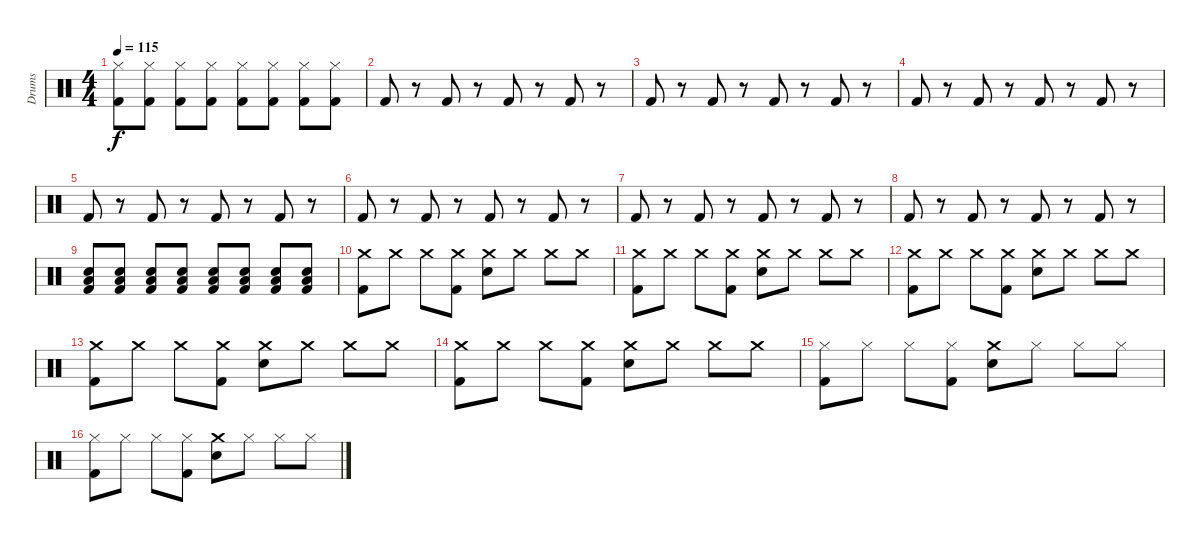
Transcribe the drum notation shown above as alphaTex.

\track ("Drums" "Drums") {instrument percussion}
\staff {score}
\articulation defaults
\ts (4 4)
\tempo 115
\clef neutral
\ks c
("Kick (hit) 2" "Hi-Hat (closed)").8{dy f} ("Kick (hit) 2" "Hi-Hat (closed)").8 ("Kick (hit) 2" "Hi-Hat (closed)").8 ("Kick (hit) 2" "Hi-Hat (closed)").8 ("Kick (hit) 2" "Hi-Hat (closed)").8 ("Kick (hit) 2" "Hi-Hat (closed)").8 ("Kick (hit) 2" "Hi-Hat (closed)").8 ("Kick (hit) 2" "Hi-Hat (closed)").8 |
"Kick (hit) 2".8 r.8 "Kick (hit) 2".8 r.8 "Kick (hit) 2".8 r.8 "Kick (hit) 2".8 r.8 |
"Kick (hit) 2".8 r.8 "Kick (hit) 2".8 r.8 "Kick (hit) 2".8 r.8 "Kick (hit) 2".8 r.8 |
"Kick (hit) 2".8 r.8 "Kick (hit) 2".8 r.8 "Kick (hit) 2".8 r.8 "Kick (hit) 2".8 r.8 |
"Kick (hit) 2".8 r.8 "Kick (hit) 2".8 r.8 "Kick (hit) 2".8 r.8 "Kick (hit) 2".8 r.8 |
"Kick (hit) 2".8 r.8 "Kick (hit) 2".8 r.8 "Kick (hit) 2".8 r.8 "Kick (hit) 2".8 r.8 |
"Kick (hit) 2".8 r.8 "Kick (hit) 2".8 r.8 "Kick (hit) 2".8 r.8 "Kick (hit) 2".8 r.8 |
"Kick (hit) 2".8 r.8 "Kick (hit) 2".8 r.8 "Kick (hit) 2".8 r.8 "Kick (hit) 2".8 r.8 |
("Kick (hit) 2" "Electric Snare (hit)" "Low Tom (hit)").8 ("Kick (hit) 2" "Electric Snare (hit)" "Low Tom (hit)").8 ("Kick (hit) 2" "Electric Snare (hit)" "Low Tom (hit)").8 ("Kick (hit) 2" "Electric Snare (hit)" "Low Tom (hit)").8 ("Kick (hit) 2" "Electric Snare (hit)" "Low Tom (hit)").8 ("Kick (hit) 2" "Electric Snare (hit)" "Low Tom (hit)").8 ("Kick (hit) 2" "Electric Snare (hit)" "Low Tom (hit)").8 ("Kick (hit) 2" "Electric Snare (hit)" "Low Tom (hit)").8 |
("Kick (hit) 2" "Crash medium (hit)").8 "Crash medium (hit)".8 "Crash medium (hit)".8 ("Kick (hit) 2" "Crash medium (hit)").8 ("Electric Snare (hit)" "Crash medium (hit)").8 "Crash medium (hit)".8 "Crash medium (hit)".8 "Crash medium (hit)".8 |
("Kick (hit) 2" "Crash medium (hit)").8 "Crash medium (hit)".8 "Crash medium (hit)".8 ("Kick (hit) 2" "Crash medium (hit)").8 ("Electric Snare (hit)" "Crash medium (hit)").8 "Crash medium (hit)".8 "Crash medium (hit)".8 "Crash medium (hit)".8 |
("Kick (hit) 2" "Crash medium (hit)").8 "Crash medium (hit)".8 "Crash medium (hit)".8 ("Kick (hit) 2" "Crash medium (hit)").8 ("Electric Snare (hit)" "Crash medium (hit)").8 "Crash medium (hit)".8 "Crash medium (hit)".8 "Crash medium (hit)".8 |
("Kick (hit) 2" "Crash medium (hit)").8 "Crash medium (hit)".8 "Crash medium (hit)".8 ("Kick (hit) 2" "Crash medium (hit)").8 ("Electric Snare (hit)" "Crash medium (hit)").8 "Crash medium (hit)".8 "Crash medium (hit)".8 "Crash medium (hit)".8 |
("Kick (hit) 2" "Crash medium (hit)").8 "Crash medium (hit)".8 "Crash medium (hit)".8 ("Kick (hit) 2" "Crash medium (hit)").8 ("Electric Snare (hit)" "Crash medium (hit)").8 "Crash medium (hit)".8 "Crash medium (hit)".8 "Crash medium (hit)".8 |
("Kick (hit) 2" "Hi-Hat (closed)").8 "Hi-Hat (closed)".8 "Hi-Hat (closed)".8 ("Kick (hit) 2" "Hi-Hat (closed)").8 ("Electric Snare (hit)" "Crash medium (hit)").8 "Hi-Hat (closed)".8 "Hi-Hat (closed)".8 "Hi-Hat (closed)".8 |
("Kick (hit) 2" "Hi-Hat (closed)").8 "Hi-Hat (closed)".8 "Hi-Hat (closed)".8 ("Kick (hit) 2" "Hi-Hat (closed)").8 ("Electric Snare (hit)" "Crash medium (hit)").8 "Hi-Hat (closed)".8 "Hi-Hat (closed)".8 "Hi-Hat (closed)".8
